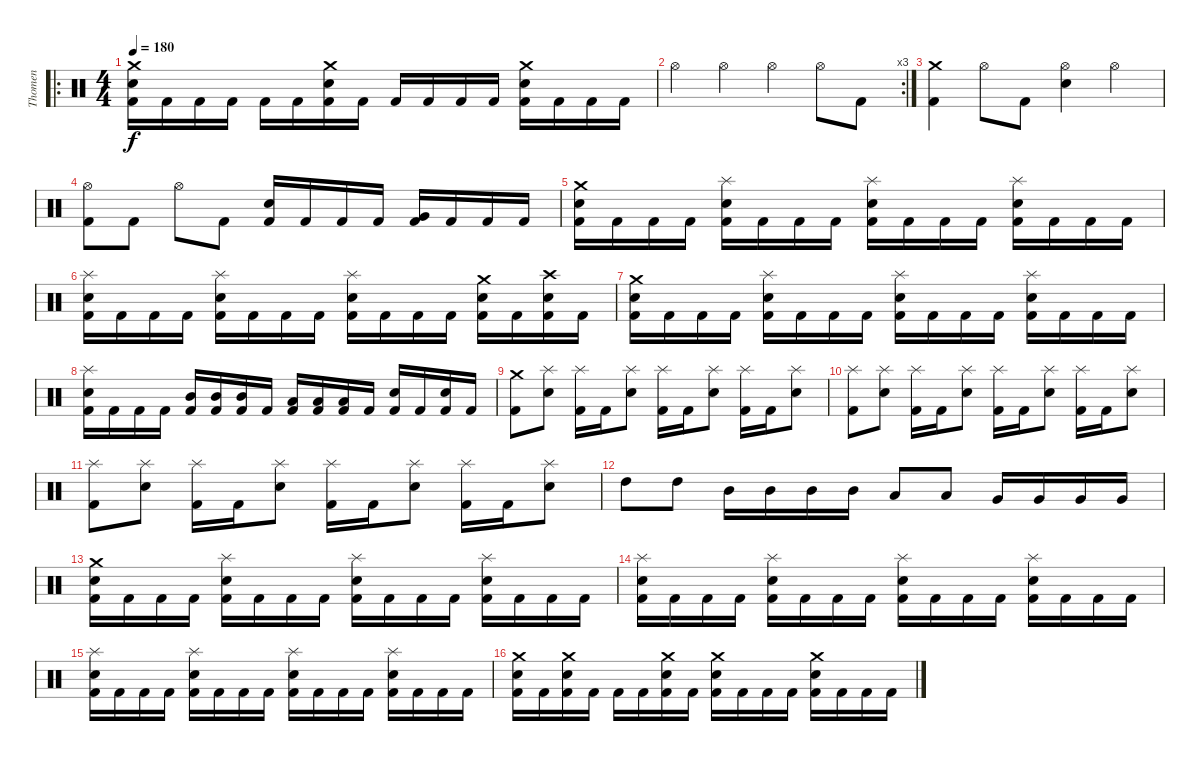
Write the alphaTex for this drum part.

\track ("Thomen" "Thomen") {instrument percussion}
\staff {score}
\articulation defaults
\ro
\ts (4 4)
\tempo 180
\clef neutral
\ks c
("Crash medium (hit)" "Electric Snare (hit)" "Kick (hit) 2").16{dy f} "Kick (hit) 2".16 "Kick (hit) 2".16 "Kick (hit) 2".16 "Kick (hit) 2".16 "Kick (hit) 2".16 ("Crash medium (hit)" "Electric Snare (hit)" "Kick (hit) 2").16 "Kick (hit) 2".16 "Kick (hit) 2".16 "Kick (hit) 2".16 "Kick (hit) 2".16 "Kick (hit) 2".16 ("Crash medium (hit)" "Electric Snare (hit)" "Kick (hit) 2").16 "Kick (hit) 2".16 "Kick (hit) 2".16 "Kick (hit) 2".16 |
\rc 3 "Hi-Hat (open)".4 "Hi-Hat (open)".4 "Hi-Hat (open)".4 "Hi-Hat (open)".8 "Kick (hit) 2".8
|
("Crash medium (hit)" "Kick (hit) 2").4 "Hi-Hat (open)".8 "Kick (hit) 2".8 ("Electric Snare (hit)" "Hi-Hat (open)").4 "Hi-Hat (open)".4 |
("Hi-Hat (open)" "Kick (hit) 2").8 "Kick (hit) 2".8 "Hi-Hat (open)".8 "Kick (hit) 2".8 ("Electric Snare (hit)" "Kick (hit) 2").16 "Kick (hit) 2".16 "Kick (hit) 2".16 "Kick (hit) 2".16 ("Very Low Tom (hit)" "Kick (hit) 2").16 "Kick (hit) 2".16 "Kick (hit) 2".16 "Kick (hit) 2".16 |
("Crash medium (hit)" "Electric Snare (hit)" "Kick (hit) 2").16 "Kick (hit) 2".16 "Kick (hit) 2".16 "Kick (hit) 2".16 ("Splash (hit)" "Electric Snare (hit)" "Kick (hit) 2").16 "Kick (hit) 2".16 "Kick (hit) 2".16 "Kick (hit) 2".16 ("Splash (hit)" "Electric Snare (hit)" "Kick (hit) 2").16 "Kick (hit) 2".16 "Kick (hit) 2".16 "Kick (hit) 2".16 ("Splash (hit)" "Electric Snare (hit)" "Kick (hit) 2").16 "Kick (hit) 2".16 "Kick (hit) 2".16 "Kick (hit) 2".16 |
("Splash (hit)" "Electric Snare (hit)" "Kick (hit) 2").16 "Kick (hit) 2".16 "Kick (hit) 2".16 "Kick (hit) 2".16 ("Splash (hit)" "Electric Snare (hit)" "Kick (hit) 2").16 "Kick (hit) 2".16 "Kick (hit) 2".16 "Kick (hit) 2".16 ("Splash (hit)" "Electric Snare (hit)" "Kick (hit) 2").16 "Kick (hit) 2".16 "Kick (hit) 2".16 "Kick (hit) 2".16 ("Crash medium (hit)" "Electric Snare (hit)" "Kick (hit) 2").16 "Kick (hit) 2".16 ("Crash high (hit)" "Electric Snare (hit)" "Kick (hit) 2").16 "Kick (hit) 2".16 |
("Crash medium (hit)" "Electric Snare (hit)" "Kick (hit) 2").16 "Kick (hit) 2".16 "Kick (hit) 2".16 "Kick (hit) 2".16 ("Splash (hit)" "Electric Snare (hit)" "Kick (hit) 2").16 "Kick (hit) 2".16 "Kick (hit) 2".16 "Kick (hit) 2".16 ("Splash (hit)" "Electric Snare (hit)" "Kick (hit) 2").16 "Kick (hit) 2".16 "Kick (hit) 2".16 "Kick (hit) 2".16 ("Splash (hit)" "Electric Snare (hit)" "Kick (hit) 2").16 "Kick (hit) 2".16 "Kick (hit) 2".16 "Kick (hit) 2".16 |
("Splash (hit)" "Electric Snare (hit)" "Kick (hit) 2").16 "Kick (hit) 2".16 "Kick (hit) 2".16 "Kick (hit) 2".16 ("Mid Tom (hit)" "Kick (hit) 2").16 ("Mid Tom (hit)" "Kick (hit) 2").16 ("Mid Tom (hit)" "Kick (hit) 2").16 "Kick (hit) 2".16 ("Low Tom (hit)" "Kick (hit) 2").16 ("Low Tom (hit)" "Kick (hit) 2").16 ("Low Tom (hit)" "Kick (hit) 2").16 "Kick (hit) 2".16 ("Electric Snare (hit)" "Kick (hit) 2").16 "Kick (hit) 2".16 ("Electric Snare (hit)" "Kick (hit) 2").16 "Kick (hit) 2".16 |
("Crash medium (hit)" "Kick (hit) 2").8 ("Splash (hit)" "Electric Snare (hit)").8 ("Splash (hit)" "Kick (hit) 2").16 "Kick (hit) 2".16 ("Splash (hit)" "Electric Snare (hit)").8 ("Splash (hit)" "Kick (hit) 2").16 "Kick (hit) 2".16 ("Splash (hit)" "Electric Snare (hit)").8 ("Splash (hit)" "Kick (hit) 2").16 "Kick (hit) 2".16 ("Splash (hit)" "Electric Snare (hit)").8 |
("Splash (hit)" "Kick (hit) 2").8 ("Splash (hit)" "Electric Snare (hit)").8 ("Splash (hit)" "Kick (hit) 2").16 "Kick (hit) 2".16 ("Splash (hit)" "Electric Snare (hit)").8 ("Splash (hit)" "Kick (hit) 2").16 "Kick (hit) 2".16 ("Splash (hit)" "Electric Snare (hit)").8 ("Splash (hit)" "Kick (hit) 2").16 "Kick (hit) 2".16 ("Splash (hit)" "Electric Snare (hit)").8 |
("Splash (hit)" "Kick (hit) 2").8 ("Splash (hit)" "Electric Snare (hit)").8 ("Splash (hit)" "Kick (hit) 2").16 "Kick (hit) 2".16 ("Splash (hit)" "Electric Snare (hit)").8 ("Splash (hit)" "Kick (hit) 2").16 "Kick (hit) 2".16 ("Splash (hit)" "Electric Snare (hit)").8 ("Splash (hit)" "Kick (hit) 2").16 "Kick (hit) 2".16 ("Splash (hit)" "Electric Snare (hit)").8 |
"High Tom (hit)".8 "High Tom (hit)".8 "Mid Tom (hit)".16 "Mid Tom (hit)".16 "Mid Tom (hit)".16 "Mid Tom (hit)".16 "Low Tom (hit)".8 "Low Tom (hit)".8 "Very Low Tom (hit)".16 "Very Low Tom (hit)".16 "Very Low Tom (hit)".16 "Very Low Tom (hit)".16 |
("Crash medium (hit)" "Electric Snare (hit)" "Kick (hit) 2").16 "Kick (hit) 2".16 "Kick (hit) 2".16 "Kick (hit) 2".16 ("Splash (hit)" "Electric Snare (hit)" "Kick (hit) 2").16 "Kick (hit) 2".16 "Kick (hit) 2".16 "Kick (hit) 2".16 ("Splash (hit)" "Electric Snare (hit)" "Kick (hit) 2").16 "Kick (hit) 2".16 "Kick (hit) 2".16 "Kick (hit) 2".16 ("Splash (hit)" "Electric Snare (hit)" "Kick (hit) 2").16 "Kick (hit) 2".16 "Kick (hit) 2".16 "Kick (hit) 2".16 |
("Splash (hit)" "Electric Snare (hit)" "Kick (hit) 2").16 "Kick (hit) 2".16 "Kick (hit) 2".16 "Kick (hit) 2".16 ("Splash (hit)" "Electric Snare (hit)" "Kick (hit) 2").16 "Kick (hit) 2".16 "Kick (hit) 2".16 "Kick (hit) 2".16 ("Splash (hit)" "Electric Snare (hit)" "Kick (hit) 2").16 "Kick (hit) 2".16 "Kick (hit) 2".16 "Kick (hit) 2".16 ("Splash (hit)" "Electric Snare (hit)" "Kick (hit) 2").16 "Kick (hit) 2".16 "Kick (hit) 2".16 "Kick (hit) 2".16 |
("Splash (hit)" "Electric Snare (hit)" "Kick (hit) 2").16 "Kick (hit) 2".16 "Kick (hit) 2".16 "Kick (hit) 2".16 ("Splash (hit)" "Electric Snare (hit)" "Kick (hit) 2").16 "Kick (hit) 2".16 "Kick (hit) 2".16 "Kick (hit) 2".16 ("Splash (hit)" "Electric Snare (hit)" "Kick (hit) 2").16 "Kick (hit) 2".16 "Kick (hit) 2".16 "Kick (hit) 2".16 ("Splash (hit)" "Electric Snare (hit)" "Kick (hit) 2").16 "Kick (hit) 2".16 "Kick (hit) 2".16 "Kick (hit) 2".16 |
("Crash medium (hit)" "Electric Snare (hit)" "Kick (hit) 2").16 "Kick (hit) 2".16 ("Crash medium (hit)" "Electric Snare (hit)" "Kick (hit) 2").16 "Kick (hit) 2".16 "Kick (hit) 2".16 "Kick (hit) 2".16 ("Crash medium (hit)" "Electric Snare (hit)" "Kick (hit) 2").16 "Kick (hit) 2".16 ("Crash medium (hit)" "Electric Snare (hit)" "Kick (hit) 2").16 "Kick (hit) 2".16 "Kick (hit) 2".16 "Kick (hit) 2".16 ("Crash medium (hit)" "Electric Snare (hit)" "Kick (hit) 2").16 "Kick (hit) 2".16 "Kick (hit) 2".16 "Kick (hit) 2".16
